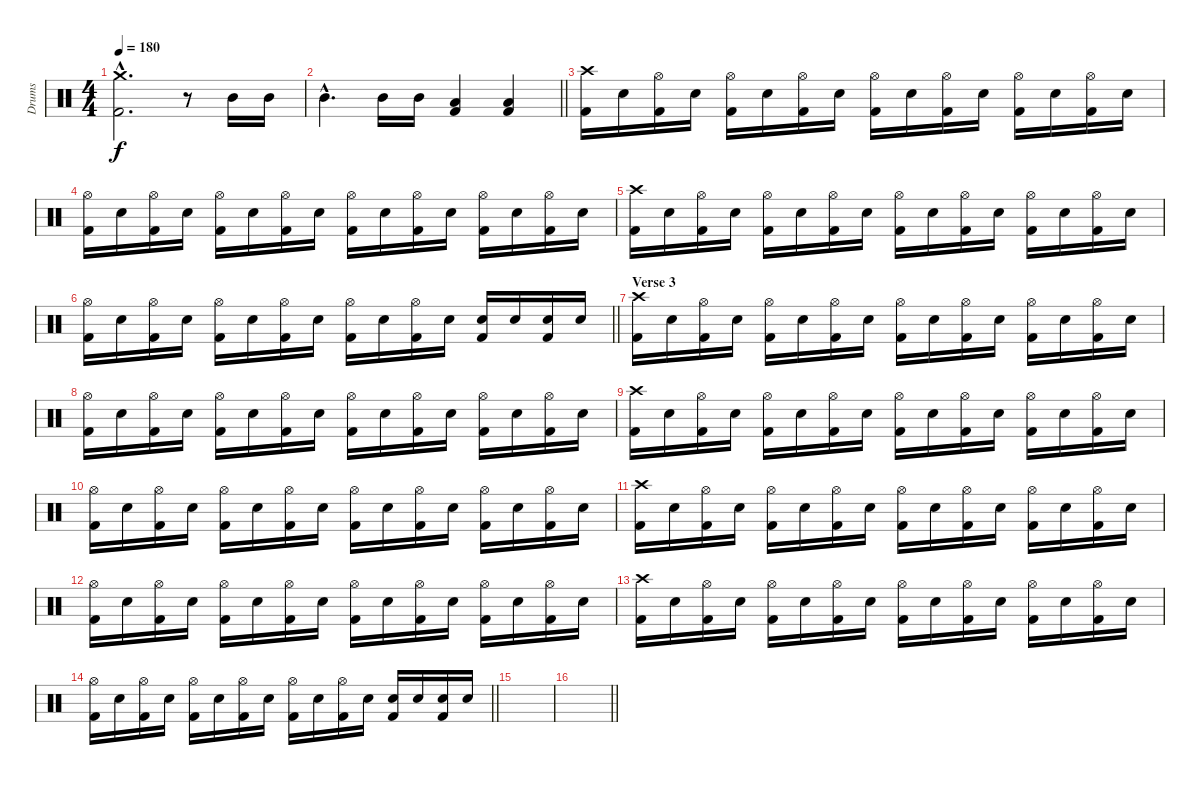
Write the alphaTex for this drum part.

\track ("Drums" "Drums") {instrument percussion}
\staff {score}
\articulation defaults
\ts (4 4)
\tempo 180
\clef neutral
\ks c
("Crash medium (hit)"{hac} "Kick (hit) 2"{hac}).2{d dy f} r.8 "Mid Tom (hit)".16 "Mid Tom (hit)".16 |
\barLineRight lightlight "Mid Tom (hit)"{hac}.4{d} "Mid Tom (hit)".16 "Mid Tom (hit)".16
("Low Tom (hit)" "Kick (hit) 2").4 ("Low Tom (hit)" "Kick (hit) 2").4 |
\section ("" "")
("Crash high (hit)" "Kick (hit) 2").16 "Electric Snare (hit)".16 ("Hi-Hat (open)" "Kick (hit) 2").16 "Electric Snare (hit)".16 ("Hi-Hat (open)" "Kick (hit) 2").16 "Electric Snare (hit)".16 ("Hi-Hat (open)" "Kick (hit) 2").16 "Electric Snare (hit)".16 ("Hi-Hat (open)" "Kick (hit) 2").16 "Electric Snare (hit)".16 ("Hi-Hat (open)" "Kick (hit) 2").16 "Electric Snare (hit)".16 ("Hi-Hat (open)" "Kick (hit) 2").16 "Electric Snare (hit)".16 ("Hi-Hat (open)" "Kick (hit) 2").16 "Electric Snare (hit)".16 |
("Hi-Hat (open)" "Kick (hit) 2").16 "Electric Snare (hit)".16 ("Hi-Hat (open)" "Kick (hit) 2").16 "Electric Snare (hit)".16 ("Hi-Hat (open)" "Kick (hit) 2").16 "Electric Snare (hit)".16 ("Hi-Hat (open)" "Kick (hit) 2").16 "Electric Snare (hit)".16 ("Hi-Hat (open)" "Kick (hit) 2").16 "Electric Snare (hit)".16 ("Hi-Hat (open)" "Kick (hit) 2").16 "Electric Snare (hit)".16 ("Hi-Hat (open)" "Kick (hit) 2").16 "Electric Snare (hit)".16 ("Hi-Hat (open)" "Kick (hit) 2").16 "Electric Snare (hit)".16 |
("Crash high (hit)" "Kick (hit) 2").16 "Electric Snare (hit)".16 ("Hi-Hat (open)" "Kick (hit) 2").16 "Electric Snare (hit)".16 ("Hi-Hat (open)" "Kick (hit) 2").16 "Electric Snare (hit)".16 ("Hi-Hat (open)" "Kick (hit) 2").16 "Electric Snare (hit)".16 ("Hi-Hat (open)" "Kick (hit) 2").16 "Electric Snare (hit)".16 ("Hi-Hat (open)" "Kick (hit) 2").16 "Electric Snare (hit)".16 ("Hi-Hat (open)" "Kick (hit) 2").16 "Electric Snare (hit)".16 ("Hi-Hat (open)" "Kick (hit) 2").16 "Electric Snare (hit)".16 |
\barLineRight lightlight
("Hi-Hat (open)" "Kick (hit) 2").16 "Electric Snare (hit)".16 ("Hi-Hat (open)" "Kick (hit) 2").16 "Electric Snare (hit)".16 ("Hi-Hat (open)" "Kick (hit) 2").16 "Electric Snare (hit)".16 ("Hi-Hat (open)" "Kick (hit) 2").16 "Electric Snare (hit)".16 ("Hi-Hat (open)" "Kick (hit) 2").16 "Electric Snare (hit)".16 ("Hi-Hat (open)" "Kick (hit) 2").16 "Electric Snare (hit)".16 ("Electric Snare (hit)" "Kick (hit) 2").16 "Electric Snare (hit)".16 ("Electric Snare (hit)" "Kick (hit) 2").16 "Electric Snare (hit)".16 |
\section ("" "Verse 3")
("Crash high (hit)" "Kick (hit) 2").16 "Electric Snare (hit)".16 ("Hi-Hat (open)" "Kick (hit) 2").16 "Electric Snare (hit)".16 ("Hi-Hat (open)" "Kick (hit) 2").16 "Electric Snare (hit)".16 ("Hi-Hat (open)" "Kick (hit) 2").16 "Electric Snare (hit)".16 ("Hi-Hat (open)" "Kick (hit) 2").16 "Electric Snare (hit)".16 ("Hi-Hat (open)" "Kick (hit) 2").16 "Electric Snare (hit)".16 ("Hi-Hat (open)" "Kick (hit) 2").16 "Electric Snare (hit)".16 ("Hi-Hat (open)" "Kick (hit) 2").16 "Electric Snare (hit)".16 |
("Hi-Hat (open)" "Kick (hit) 2").16 "Electric Snare (hit)".16 ("Hi-Hat (open)" "Kick (hit) 2").16 "Electric Snare (hit)".16 ("Hi-Hat (open)" "Kick (hit) 2").16 "Electric Snare (hit)".16 ("Hi-Hat (open)" "Kick (hit) 2").16 "Electric Snare (hit)".16 ("Hi-Hat (open)" "Kick (hit) 2").16 "Electric Snare (hit)".16 ("Hi-Hat (open)" "Kick (hit) 2").16 "Electric Snare (hit)".16 ("Hi-Hat (open)" "Kick (hit) 2").16 "Electric Snare (hit)".16 ("Hi-Hat (open)" "Kick (hit) 2").16 "Electric Snare (hit)".16 |
("Crash high (hit)" "Kick (hit) 2").16 "Electric Snare (hit)".16 ("Hi-Hat (open)" "Kick (hit) 2").16 "Electric Snare (hit)".16 ("Hi-Hat (open)" "Kick (hit) 2").16 "Electric Snare (hit)".16 ("Hi-Hat (open)" "Kick (hit) 2").16 "Electric Snare (hit)".16 ("Hi-Hat (open)" "Kick (hit) 2").16 "Electric Snare (hit)".16 ("Hi-Hat (open)" "Kick (hit) 2").16 "Electric Snare (hit)".16 ("Hi-Hat (open)" "Kick (hit) 2").16 "Electric Snare (hit)".16 ("Hi-Hat (open)" "Kick (hit) 2").16 "Electric Snare (hit)".16 |
("Hi-Hat (open)" "Kick (hit) 2").16 "Electric Snare (hit)".16 ("Hi-Hat (open)" "Kick (hit) 2").16 "Electric Snare (hit)".16 ("Hi-Hat (open)" "Kick (hit) 2").16 "Electric Snare (hit)".16 ("Hi-Hat (open)" "Kick (hit) 2").16 "Electric Snare (hit)".16 ("Hi-Hat (open)" "Kick (hit) 2").16 "Electric Snare (hit)".16 ("Hi-Hat (open)" "Kick (hit) 2").16 "Electric Snare (hit)".16 ("Hi-Hat (open)" "Kick (hit) 2").16 "Electric Snare (hit)".16 ("Hi-Hat (open)" "Kick (hit) 2").16 "Electric Snare (hit)".16 |
("Crash high (hit)" "Kick (hit) 2").16 "Electric Snare (hit)".16 ("Hi-Hat (open)" "Kick (hit) 2").16 "Electric Snare (hit)".16 ("Hi-Hat (open)" "Kick (hit) 2").16 "Electric Snare (hit)".16 ("Hi-Hat (open)" "Kick (hit) 2").16 "Electric Snare (hit)".16 ("Hi-Hat (open)" "Kick (hit) 2").16 "Electric Snare (hit)".16 ("Hi-Hat (open)" "Kick (hit) 2").16 "Electric Snare (hit)".16 ("Hi-Hat (open)" "Kick (hit) 2").16 "Electric Snare (hit)".16 ("Hi-Hat (open)" "Kick (hit) 2").16 "Electric Snare (hit)".16 |
("Hi-Hat (open)" "Kick (hit) 2").16 "Electric Snare (hit)".16 ("Hi-Hat (open)" "Kick (hit) 2").16 "Electric Snare (hit)".16 ("Hi-Hat (open)" "Kick (hit) 2").16 "Electric Snare (hit)".16 ("Hi-Hat (open)" "Kick (hit) 2").16 "Electric Snare (hit)".16 ("Hi-Hat (open)" "Kick (hit) 2").16 "Electric Snare (hit)".16 ("Hi-Hat (open)" "Kick (hit) 2").16 "Electric Snare (hit)".16 ("Hi-Hat (open)" "Kick (hit) 2").16 "Electric Snare (hit)".16 ("Hi-Hat (open)" "Kick (hit) 2").16 "Electric Snare (hit)".16 |
("Crash high (hit)" "Kick (hit) 2").16 "Electric Snare (hit)".16 ("Hi-Hat (open)" "Kick (hit) 2").16 "Electric Snare (hit)".16 ("Hi-Hat (open)" "Kick (hit) 2").16 "Electric Snare (hit)".16 ("Hi-Hat (open)" "Kick (hit) 2").16 "Electric Snare (hit)".16 ("Hi-Hat (open)" "Kick (hit) 2").16 "Electric Snare (hit)".16 ("Hi-Hat (open)" "Kick (hit) 2").16 "Electric Snare (hit)".16 ("Hi-Hat (open)" "Kick (hit) 2").16 "Electric Snare (hit)".16 ("Hi-Hat (open)" "Kick (hit) 2").16 "Electric Snare (hit)".16 |
\barLineRight lightlight
("Hi-Hat (open)" "Kick (hit) 2").16 "Electric Snare (hit)".16 ("Hi-Hat (open)" "Kick (hit) 2").16 "Electric Snare (hit)".16 ("Hi-Hat (open)" "Kick (hit) 2").16 "Electric Snare (hit)".16 ("Hi-Hat (open)" "Kick (hit) 2").16 "Electric Snare (hit)".16 ("Hi-Hat (open)" "Kick (hit) 2").16 "Electric Snare (hit)".16 ("Hi-Hat (open)" "Kick (hit) 2").16 "Electric Snare (hit)".16 ("Electric Snare (hit)" "Kick (hit) 2").16 "Electric Snare (hit)".16 ("Electric Snare (hit)" "Kick (hit) 2").16 "Electric Snare (hit)".16 |
\section ("" "")
|
\barLineRight lightlight
